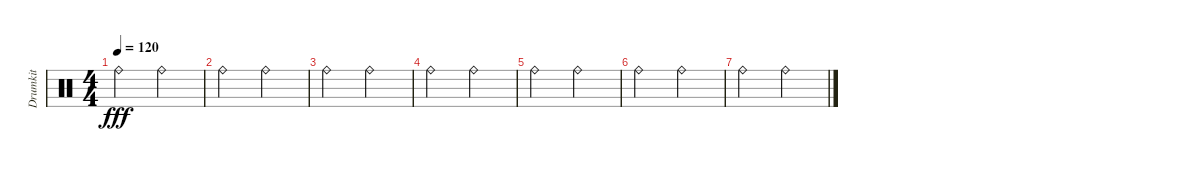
\track ("Drumkit" "Drumkit") {instrument percussion}
\staff {score}
\articulation defaults
\ts (4 4)
\tempo 120
\clef neutral
\ks c "Ride (bell)".2{dy fff} "Ride (bell)".2
|
"Ride (bell)".2 "Ride (bell)".2 |
"Ride (bell)".2 "Ride (bell)".2 |
"Ride (bell)".2 "Ride (bell)".2 |
"Ride (bell)".2 "Ride (bell)".2 |
"Ride (bell)".2 "Ride (bell)".2 |
"Ride (bell)".2 "Ride (bell)".2
